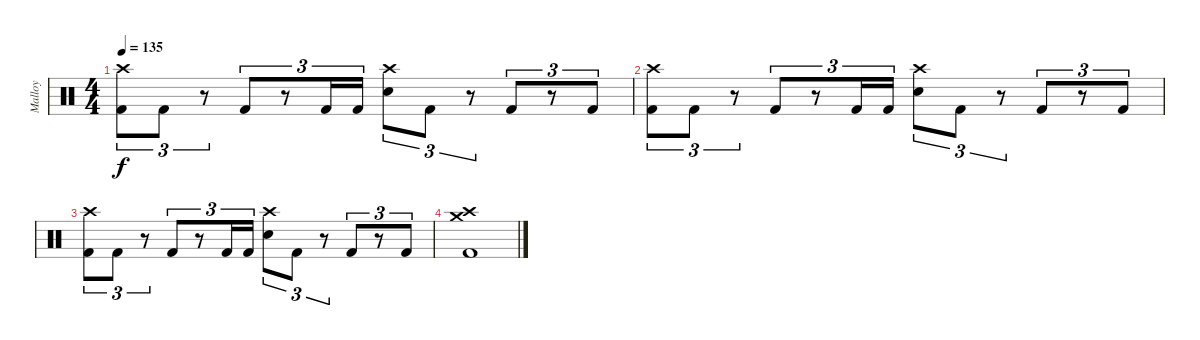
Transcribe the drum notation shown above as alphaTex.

\track ("Malloy" "Malloy") {instrument percussion}
\staff {score}
\articulation defaults
\ts (4 4)
\tempo 135
\clef neutral
\ks c
("Kick (hit) 2" "Crash high (hit)").8{tu (3 2) dy f} "Kick (hit) 2".8{tu (3 2)} r.8{tu (3 2)} "Kick (hit) 2".8{tu (3 2)} r.8{tu (3 2)} "Kick (hit) 2".16{tu (3 2)} "Kick (hit) 2".16{tu (3 2)} ("Electric Snare (hit)" "Crash high (hit)").8{tu (3 2)} "Kick (hit) 2".8{tu (3 2)} r.8{tu (3 2)} "Kick (hit) 2".8{tu (3 2)} r.8{tu (3 2)} "Kick (hit) 2".8{tu (3 2)} |
("Kick (hit) 2" "Crash high (hit)").8{tu (3 2)} "Kick (hit) 2".8{tu (3 2)} r.8{tu (3 2)} "Kick (hit) 2".8{tu (3 2)} r.8{tu (3 2)} "Kick (hit) 2".16{tu (3 2)} "Kick (hit) 2".16{tu (3 2)} ("Electric Snare (hit)" "Crash high (hit)").8{tu (3 2)} "Kick (hit) 2".8{tu (3 2)} r.8{tu (3 2)} "Kick (hit) 2".8{tu (3 2)} r.8{tu (3 2)} "Kick (hit) 2".8{tu (3 2)} |
("Kick (hit) 2" "Crash high (hit)").8{tu (3 2)} "Kick (hit) 2".8{tu (3 2)} r.8{tu (3 2)} "Kick (hit) 2".8{tu (3 2)} r.8{tu (3 2)} "Kick (hit) 2".16{tu (3 2)} "Kick (hit) 2".16{tu (3 2)} ("Electric Snare (hit)" "Crash high (hit)").8{tu (3 2)} "Kick (hit) 2".8{tu (3 2)} r.8{tu (3 2)} "Kick (hit) 2".8{tu (3 2)} r.8{tu (3 2)} "Kick (hit) 2".8{tu (3 2)} |
("Kick (hit) 2" "Crash medium (hit)" "Crash high (hit)").1
